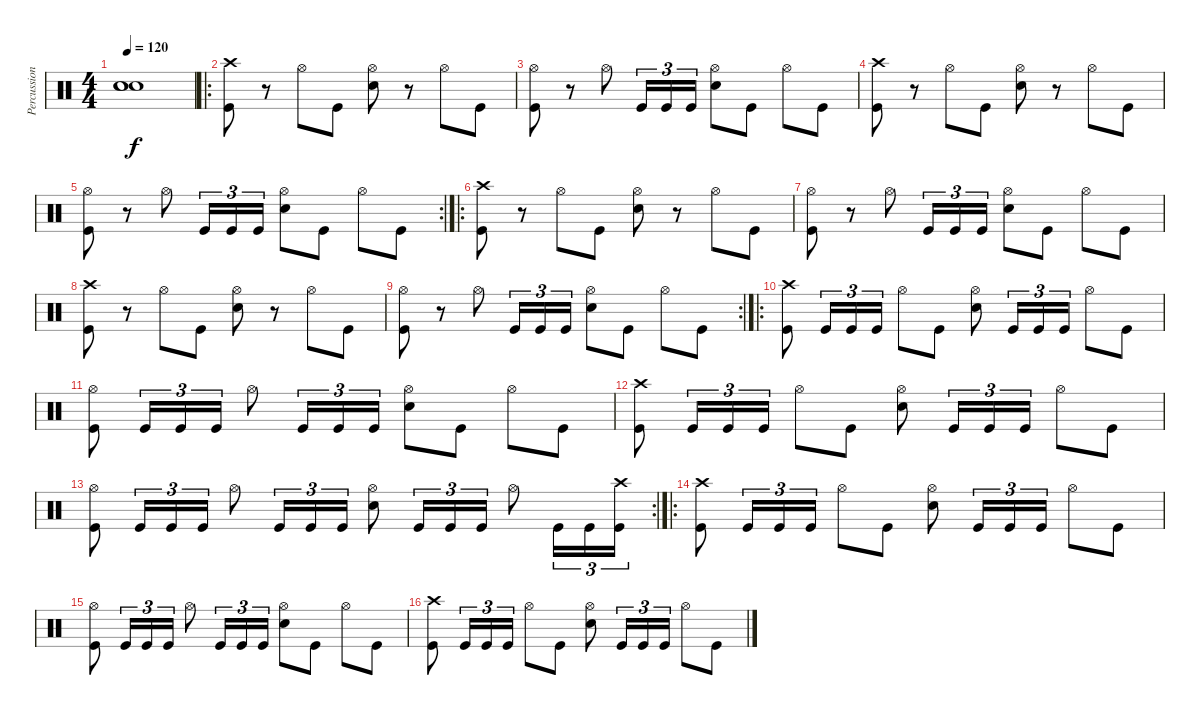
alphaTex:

\track ("Percussions" "Percussion") {instrument percussion}
\staff {score}
\articulation defaults
\ts (4 4)
\tempo 120
\clef neutral
\ks c
("Snare (hit)"{t} "Snare (hit)"{t} "Snare (hit)"{t}).1{dy f} |
\ro
("Crash high (hit)" "Kick (hit)").8 r.8 "Hi-Hat (open)".8 "Kick (hit)".8 ("Hi-Hat (open)" "Electric Snare (hit)").8 r.8 "Hi-Hat (open)".8 "Kick (hit)".8 |
("Hi-Hat (open)" "Kick (hit)").8 r.8 "Hi-Hat (open)".8 "Kick (hit)".16{tu (3 2)} "Kick (hit)".16{tu (3 2)} "Kick (hit)".16{tu (3 2)} ("Hi-Hat (open)" "Electric Snare (hit)").8 "Kick (hit)".8 "Hi-Hat (open)".8 "Kick (hit)".8 |
("Crash high (hit)" "Kick (hit)").8 r.8 "Hi-Hat (open)".8 "Kick (hit)".8 ("Hi-Hat (open)" "Electric Snare (hit)").8 r.8 "Hi-Hat (open)".8 "Kick (hit)".8 |
\rc 2
("Hi-Hat (open)" "Kick (hit)").8 r.8 "Hi-Hat (open)".8 "Kick (hit)".16{tu (3 2)} "Kick (hit)".16{tu (3 2)} "Kick (hit)".16{tu (3 2)} ("Hi-Hat (open)" "Electric Snare (hit)").8 "Kick (hit)".8 "Hi-Hat (open)".8 "Kick (hit)".8 |
\ro
("Crash high (hit)" "Kick (hit)").8 r.8 "Hi-Hat (open)".8 "Kick (hit)".8 ("Hi-Hat (open)" "Electric Snare (hit)").8 r.8 "Hi-Hat (open)".8 "Kick (hit)".8 |
("Hi-Hat (open)" "Kick (hit)").8 r.8 "Hi-Hat (open)".8 "Kick (hit)".16{tu (3 2)} "Kick (hit)".16{tu (3 2)} "Kick (hit)".16{tu (3 2)} ("Hi-Hat (open)" "Electric Snare (hit)").8 "Kick (hit)".8 "Hi-Hat (open)".8 "Kick (hit)".8 |
("Crash high (hit)" "Kick (hit)").8 r.8 "Hi-Hat (open)".8 "Kick (hit)".8 ("Hi-Hat (open)" "Electric Snare (hit)").8 r.8 "Hi-Hat (open)".8 "Kick (hit)".8 |
\rc 2
("Hi-Hat (open)" "Kick (hit)").8 r.8 "Hi-Hat (open)".8 "Kick (hit)".16{tu (3 2)} "Kick (hit)".16{tu (3 2)} "Kick (hit)".16{tu (3 2)} ("Hi-Hat (open)" "Electric Snare (hit)").8 "Kick (hit)".8 "Hi-Hat (open)".8 "Kick (hit)".8 |
\ro
("Crash high (hit)" "Kick (hit)").8 "Kick (hit)".16{tu (3 2)} "Kick (hit)".16{tu (3 2)} "Kick (hit)".16{tu (3 2)} "Hi-Hat (open)".8 "Kick (hit)".8 ("Hi-Hat (open)" "Electric Snare (hit)").8 "Kick (hit)".16{tu (3 2)} "Kick (hit)".16{tu (3 2)} "Kick (hit)".16{tu (3 2)} "Hi-Hat (open)".8 "Kick (hit)".8 |
("Hi-Hat (open)" "Kick (hit)").8 "Kick (hit)".16{tu (3 2)} "Kick (hit)".16{tu (3 2)} "Kick (hit)".16{tu (3 2)} "Hi-Hat (open)".8 "Kick (hit)".16{tu (3 2)} "Kick (hit)".16{tu (3 2)} "Kick (hit)".16{tu (3 2)} ("Hi-Hat (open)" "Electric Snare (hit)").8 "Kick (hit)".8 "Hi-Hat (open)".8 "Kick (hit)".8 |
("Crash high (hit)" "Kick (hit)").8 "Kick (hit)".16{tu (3 2)} "Kick (hit)".16{tu (3 2)} "Kick (hit)".16{tu (3 2)} "Hi-Hat (open)".8 "Kick (hit)".8 ("Hi-Hat (open)" "Electric Snare (hit)").8 "Kick (hit)".16{tu (3 2)} "Kick (hit)".16{tu (3 2)} "Kick (hit)".16{tu (3 2)} "Hi-Hat (open)".8 "Kick (hit)".8 |
\rc 2
("Hi-Hat (open)" "Kick (hit)").8 "Kick (hit)".16{tu (3 2)} "Kick (hit)".16{tu (3 2)} "Kick (hit)".16{tu (3 2)} "Hi-Hat (open)".8 "Kick (hit)".16{tu (3 2)} "Kick (hit)".16{tu (3 2)} "Kick (hit)".16{tu (3 2)} ("Hi-Hat (open)" "Electric Snare (hit)").8 "Kick (hit)".16{tu (3 2)} "Kick (hit)".16{tu (3 2)} "Kick (hit)".16{tu (3 2)} "Hi-Hat (open)".8 "Kick (hit)".16{tu (3 2)} "Kick (hit)".16{tu (3 2)} ("Crash high (hit)" "Kick (hit)").16{tu (3 2)} |
\ro
("Crash high (hit)" "Kick (hit)").8 "Kick (hit)".16{tu (3 2)} "Kick (hit)".16{tu (3 2)} "Kick (hit)".16{tu (3 2)} "Hi-Hat (open)".8 "Kick (hit)".8 ("Hi-Hat (open)" "Electric Snare (hit)").8 "Kick (hit)".16{tu (3 2)} "Kick (hit)".16{tu (3 2)} "Kick (hit)".16{tu (3 2)} "Hi-Hat (open)".8 "Kick (hit)".8 |
("Hi-Hat (open)" "Kick (hit)").8 "Kick (hit)".16{tu (3 2)} "Kick (hit)".16{tu (3 2)} "Kick (hit)".16{tu (3 2)} "Hi-Hat (open)".8 "Kick (hit)".16{tu (3 2)} "Kick (hit)".16{tu (3 2)} "Kick (hit)".16{tu (3 2)} ("Hi-Hat (open)" "Electric Snare (hit)").8 "Kick (hit)".8 "Hi-Hat (open)".8 "Kick (hit)".8 |
("Crash high (hit)" "Kick (hit)").8 "Kick (hit)".16{tu (3 2)} "Kick (hit)".16{tu (3 2)} "Kick (hit)".16{tu (3 2)} "Hi-Hat (open)".8 "Kick (hit)".8 ("Hi-Hat (open)" "Electric Snare (hit)").8 "Kick (hit)".16{tu (3 2)} "Kick (hit)".16{tu (3 2)} "Kick (hit)".16{tu (3 2)} "Hi-Hat (open)".8 "Kick (hit)".8
